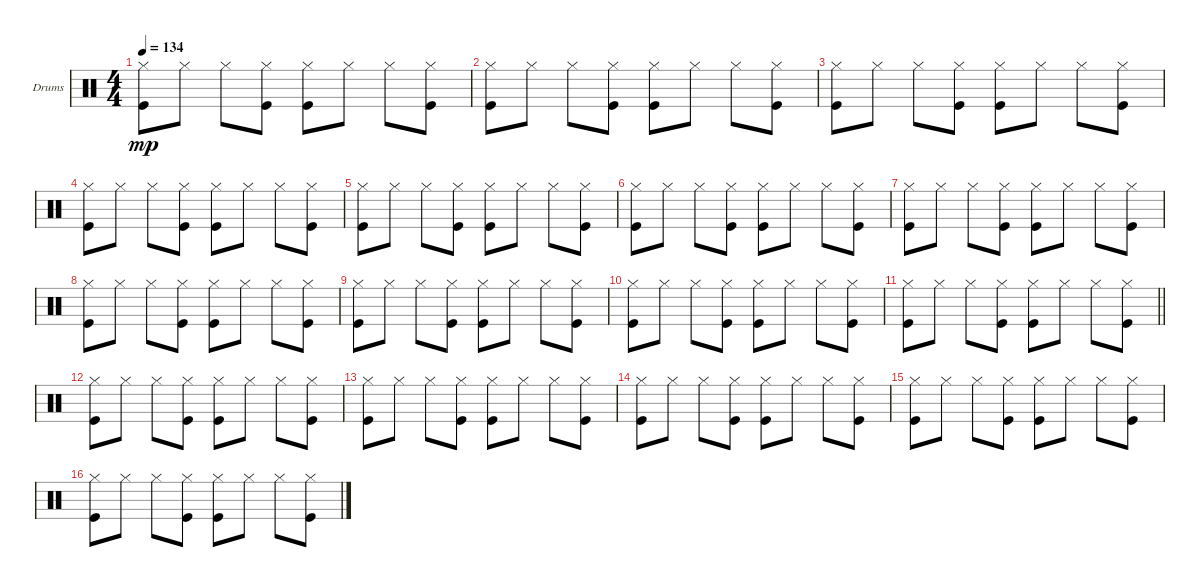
\bracketExtendMode groupsimilarinstruments
\firstSystemTrackNameOrientation horizontal
\otherSystemsTrackNameOrientation horizontal
\track ("Drumkit" "Drums") {instrument percussion}
\staff {score}
\articulation defaults
\ts (4 4)
\scale
0.245232
\tempo 134
\accidentals auto
\clef neutral
\ottava regular
\simile none
\ks c
("Kick (hit)" "Hi-Hat (closed)").8{dy mp} "Hi-Hat (closed)".8 "Hi-Hat (closed)".8 ("Kick (hit)" "Hi-Hat (closed)").8 ("Kick (hit)" "Hi-Hat (closed)").8 "Hi-Hat (closed)".8 "Hi-Hat (closed)".8 ("Hi-Hat (closed)" "Kick (hit)").8 |
\scale
0.254768 ("Kick (hit)" "Hi-Hat (closed)").8 "Hi-Hat (closed)".8 "Hi-Hat (closed)".8 ("Kick (hit)" "Hi-Hat (closed)").8 ("Kick (hit)" "Hi-Hat (closed)").8 "Hi-Hat (closed)".8 "Hi-Hat (closed)".8 ("Hi-Hat (closed)" "Kick (hit)").8 |
\scale
0.245232 ("Kick (hit)" "Hi-Hat (closed)").8 "Hi-Hat (closed)".8 "Hi-Hat (closed)".8 ("Kick (hit)" "Hi-Hat (closed)").8 ("Kick (hit)" "Hi-Hat (closed)").8 "Hi-Hat (closed)".8 "Hi-Hat (closed)".8 ("Hi-Hat (closed)" "Kick (hit)").8 |
\scale
0.254768 ("Kick (hit)" "Hi-Hat (closed)").8 "Hi-Hat (closed)".8 "Hi-Hat (closed)".8 ("Kick (hit)" "Hi-Hat (closed)").8 ("Kick (hit)" "Hi-Hat (closed)").8 "Hi-Hat (closed)".8 "Hi-Hat (closed)".8 ("Hi-Hat (closed)" "Kick (hit)").8 |
\scale
0.245232 ("Kick (hit)" "Hi-Hat (closed)").8 "Hi-Hat (closed)".8 "Hi-Hat (closed)".8 ("Kick (hit)" "Hi-Hat (closed)").8 ("Kick (hit)" "Hi-Hat (closed)").8 "Hi-Hat (closed)".8 "Hi-Hat (closed)".8 ("Hi-Hat (closed)" "Kick (hit)").8 |
\scale
0.254768 ("Kick (hit)" "Hi-Hat (closed)").8 "Hi-Hat (closed)".8 "Hi-Hat (closed)".8 ("Kick (hit)" "Hi-Hat (closed)").8 ("Kick (hit)" "Hi-Hat (closed)").8 "Hi-Hat (closed)".8 "Hi-Hat (closed)".8 ("Hi-Hat (closed)" "Kick (hit)").8 |
\scale
0.245232 ("Kick (hit)" "Hi-Hat (closed)").8 "Hi-Hat (closed)".8 "Hi-Hat (closed)".8 ("Kick (hit)" "Hi-Hat (closed)").8 ("Kick (hit)" "Hi-Hat (closed)").8 "Hi-Hat (closed)".8 "Hi-Hat (closed)".8 ("Hi-Hat (closed)" "Kick (hit)").8 |
\scale
0.254768 ("Kick (hit)" "Hi-Hat (closed)").8 "Hi-Hat (closed)".8 "Hi-Hat (closed)".8 ("Kick (hit)" "Hi-Hat (closed)").8 ("Kick (hit)" "Hi-Hat (closed)").8 "Hi-Hat (closed)".8 "Hi-Hat (closed)".8 ("Hi-Hat (closed)" "Kick (hit)").8 |
\scale
0.223602 ("Kick (hit)" "Hi-Hat (closed)").8 "Hi-Hat (closed)".8 "Hi-Hat (closed)".8 ("Kick (hit)" "Hi-Hat (closed)").8 ("Kick (hit)" "Hi-Hat (closed)").8 "Hi-Hat (closed)".8 "Hi-Hat (closed)".8 ("Hi-Hat (closed)" "Kick (hit)").8 |
\scale
0.232298 ("Kick (hit)" "Hi-Hat (closed)").8 "Hi-Hat (closed)".8 "Hi-Hat (closed)".8 ("Kick (hit)" "Hi-Hat (closed)").8 ("Kick (hit)" "Hi-Hat (closed)").8 "Hi-Hat (closed)".8 "Hi-Hat (closed)".8 ("Hi-Hat (closed)" "Kick (hit)").8 |
\scale
0.223602
\barLineRight lightlight
("Kick (hit)" "Hi-Hat (closed)").8 "Hi-Hat (closed)".8 "Hi-Hat (closed)".8 ("Kick (hit)" "Hi-Hat (closed)").8 ("Kick (hit)" "Hi-Hat (closed)").8 "Hi-Hat (closed)".8 "Hi-Hat (closed)".8 ("Hi-Hat (closed)" "Kick (hit)").8 |
\scale
0.320497 ("Kick (hit)" "Hi-Hat (closed)").8 "Hi-Hat (closed)".8 "Hi-Hat (closed)".8 ("Kick (hit)" "Hi-Hat (closed)").8 ("Kick (hit)" "Hi-Hat (closed)").8 "Hi-Hat (closed)".8 "Hi-Hat (closed)".8 ("Hi-Hat (closed)" "Kick (hit)").8 |
\scale
0.221187 ("Kick (hit)" "Hi-Hat (closed)").8 "Hi-Hat (closed)".8 "Hi-Hat (closed)".8 ("Kick (hit)" "Hi-Hat (closed)").8 ("Kick (hit)" "Hi-Hat (closed)").8 "Hi-Hat (closed)".8 "Hi-Hat (closed)".8 ("Hi-Hat (closed)" "Kick (hit)").8 |
\scale
0.204889 ("Kick (hit)" "Hi-Hat (closed)").8 "Hi-Hat (closed)".8 "Hi-Hat (closed)".8 ("Kick (hit)" "Hi-Hat (closed)").8 ("Kick (hit)" "Hi-Hat (closed)").8 "Hi-Hat (closed)".8 "Hi-Hat (closed)".8 ("Hi-Hat (closed)" "Kick (hit)").8 |
\scale
0.329453 ("Kick (hit)" "Hi-Hat (closed)").8 "Hi-Hat (closed)".8 "Hi-Hat (closed)".8 ("Kick (hit)" "Hi-Hat (closed)").8 ("Kick (hit)" "Hi-Hat (closed)").8 "Hi-Hat (closed)".8 "Hi-Hat (closed)".8 ("Hi-Hat (closed)" "Kick (hit)").8 |
\scale
0.24447 ("Kick (hit)" "Hi-Hat (closed)").8 "Hi-Hat (closed)".8 "Hi-Hat (closed)".8 ("Kick (hit)" "Hi-Hat (closed)").8 ("Kick (hit)" "Hi-Hat (closed)").8 "Hi-Hat (closed)".8 "Hi-Hat (closed)".8 ("Hi-Hat (closed)" "Kick (hit)").8
